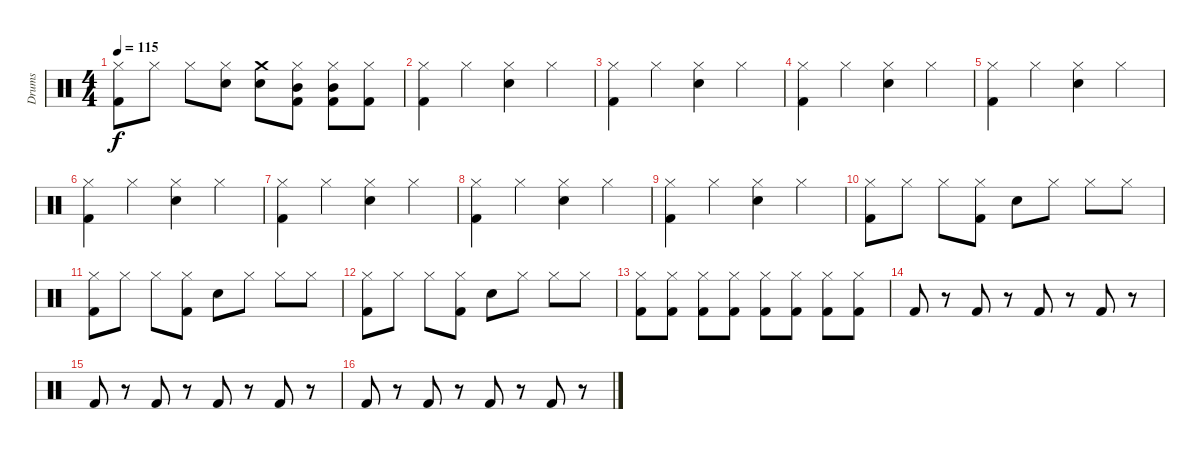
\track ("Drums" "Drums") {instrument percussion}
\staff {score}
\articulation defaults
\ts (4 4)
\tempo 115
\clef neutral
\ks c
("Kick (hit) 2" "Hi-Hat (closed)").8{dy f} "Hi-Hat (closed)".8 "Hi-Hat (closed)".8 ("Electric Snare (hit)" "Hi-Hat (closed)").8 ("Electric Snare (hit)" "Crash medium (hit)").8 ("Kick (hit) 2" "Hi-Hat (closed)" "Mid Tom (hit)").8 ("Kick (hit) 2" "Hi-Hat (closed)" "Mid Tom (hit)").8 ("Kick (hit) 2" "Hi-Hat (closed)").8 |
("Kick (hit) 2" "Hi-Hat (closed)").4 "Hi-Hat (closed)".4 ("Electric Snare (hit)" "Hi-Hat (closed)").4 "Hi-Hat (closed)".4 |
("Kick (hit) 2" "Hi-Hat (closed)").4 "Hi-Hat (closed)".4 ("Electric Snare (hit)" "Hi-Hat (closed)").4 "Hi-Hat (closed)".4 |
("Kick (hit) 2" "Hi-Hat (closed)").4 "Hi-Hat (closed)".4 ("Electric Snare (hit)" "Hi-Hat (closed)").4 "Hi-Hat (closed)".4 |
("Kick (hit) 2" "Hi-Hat (closed)").4 "Hi-Hat (closed)".4 ("Electric Snare (hit)" "Hi-Hat (closed)").4 "Hi-Hat (closed)".4 |
("Kick (hit) 2" "Hi-Hat (closed)").4 "Hi-Hat (closed)".4 ("Electric Snare (hit)" "Hi-Hat (closed)").4 "Hi-Hat (closed)".4 |
("Kick (hit) 2" "Hi-Hat (closed)").4 "Hi-Hat (closed)".4 ("Electric Snare (hit)" "Hi-Hat (closed)").4 "Hi-Hat (closed)".4 |
("Kick (hit) 2" "Hi-Hat (closed)").4 "Hi-Hat (closed)".4 ("Electric Snare (hit)" "Hi-Hat (closed)").4 "Hi-Hat (closed)".4 |
("Kick (hit) 2" "Hi-Hat (closed)").4 "Hi-Hat (closed)".4 ("Electric Snare (hit)" "Hi-Hat (closed)").4 "Hi-Hat (closed)".4 |
("Kick (hit) 2" "Hi-Hat (closed)").8 "Hi-Hat (closed)".8 "Hi-Hat (closed)".8 ("Kick (hit) 2" "Hi-Hat (closed)").8 "Electric Snare (hit)".8 "Hi-Hat (closed)".8 "Hi-Hat (closed)".8 "Hi-Hat (closed)".8 |
("Kick (hit) 2" "Hi-Hat (closed)").8 "Hi-Hat (closed)".8 "Hi-Hat (closed)".8 ("Kick (hit) 2" "Hi-Hat (closed)").8 "Electric Snare (hit)".8 "Hi-Hat (closed)".8 "Hi-Hat (closed)".8 "Hi-Hat (closed)".8 |
("Kick (hit) 2" "Hi-Hat (closed)").8 "Hi-Hat (closed)".8 "Hi-Hat (closed)".8 ("Kick (hit) 2" "Hi-Hat (closed)").8 "Electric Snare (hit)".8 "Hi-Hat (closed)".8 "Hi-Hat (closed)".8 "Hi-Hat (closed)".8 |
("Kick (hit) 2" "Hi-Hat (closed)").8 ("Kick (hit) 2" "Hi-Hat (closed)").8 ("Kick (hit) 2" "Hi-Hat (closed)").8 ("Kick (hit) 2" "Hi-Hat (closed)").8 ("Kick (hit) 2" "Hi-Hat (closed)").8 ("Kick (hit) 2" "Hi-Hat (closed)").8 ("Kick (hit) 2" "Hi-Hat (closed)").8 ("Kick (hit) 2" "Hi-Hat (closed)").8 |
"Kick (hit) 2".8 r.8 "Kick (hit) 2".8 r.8 "Kick (hit) 2".8 r.8 "Kick (hit) 2".8 r.8 |
"Kick (hit) 2".8 r.8 "Kick (hit) 2".8 r.8 "Kick (hit) 2".8 r.8 "Kick (hit) 2".8 r.8 |
"Kick (hit) 2".8 r.8 "Kick (hit) 2".8 r.8 "Kick (hit) 2".8 r.8 "Kick (hit) 2".8 r.8
